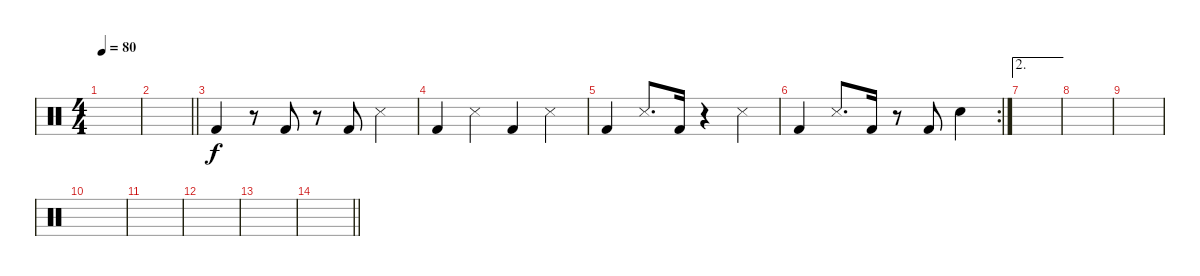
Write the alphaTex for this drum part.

\track "" {instrument percussion}
\staff {score}
\articulation defaults
\ts (4 4)
\tempo 80
\clef neutral
\ks c
|
\barLineRight lightlight
|
"Kick (hit) 2".4 r.8 "Kick (hit) 2".8 r.8 "Kick (hit) 2".8 "Metronome (hit)".4 |
"Kick (hit) 2".4 "Metronome (hit)".4 "Kick (hit) 2".4 "Metronome (hit)".4 |
"Kick (hit) 2".4 "Metronome (hit)".8{d} "Kick (hit) 2".16 r.4 "Metronome (hit)".4 |
\rc 2 "Kick (hit) 2".4 "Metronome (hit)".8{d} "Kick (hit) 2".16
r.8 "Kick (hit) 2".8 "Electric Snare (hit)".4 |
\ae 2
|
|
|
|
|
|
|
\barLineRight lightlight
